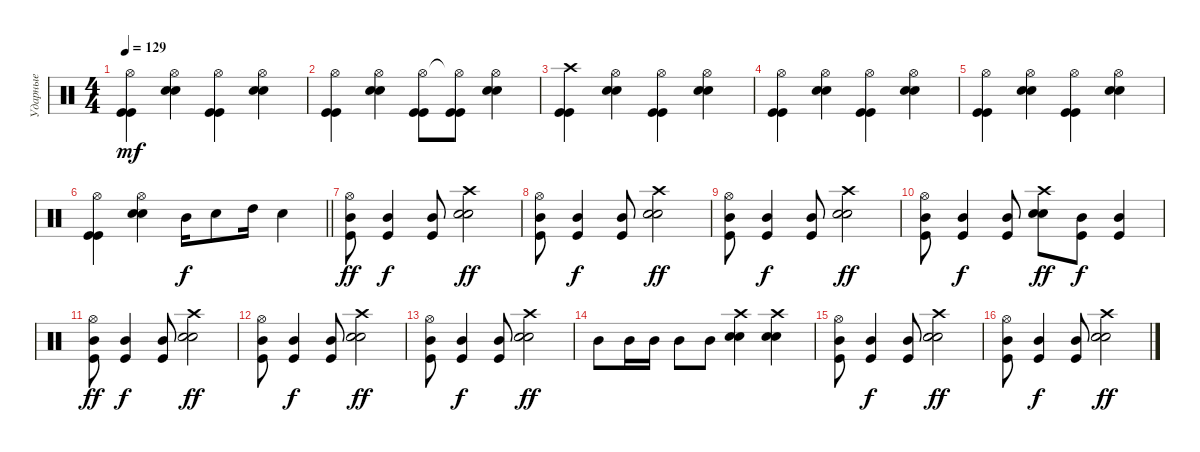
\track ("Ударные" "Ударные") {instrument percussion}
\staff {score}
\articulation defaults
\ts (4 4)
\tempo 129
\clef neutral
\ks c
("Hi-Hat (open)" "Kick (hit)" "Kick (hit)").4{dy mf} ("Hi-Hat (open)" "Snare (hit) 2" "Snare (hit) 2").4 ("Hi-Hat (open)" "Kick (hit)" "Kick (hit)").4 ("Hi-Hat (open)" "Snare (hit) 2" "Snare (hit) 2").4 |
("Hi-Hat (open)" "Kick (hit)" "Kick (hit)").4 ("Hi-Hat (open)" "Snare (hit) 2" "Snare (hit) 2").4 ("Hi-Hat (open)" "Kick (hit)" "Kick (hit)").8 ("Hi-Hat (open)"{t} "Kick (hit)" "Kick (hit)").8 ("Hi-Hat (open)" "Snare (hit) 2" "Snare (hit) 2").4 |
("Crash high (hit)" "Kick (hit)" "Kick (hit)").4 ("Hi-Hat (open)" "Snare (hit) 2" "Snare (hit) 2").4 ("Hi-Hat (open)" "Kick (hit)" "Kick (hit)").4 ("Hi-Hat (open)" "Snare (hit) 2" "Snare (hit) 2").4 |
("Hi-Hat (open)" "Kick (hit)" "Kick (hit)").4 ("Hi-Hat (open)" "Snare (hit) 2" "Snare (hit) 2").4 ("Hi-Hat (open)" "Kick (hit)" "Kick (hit)").4 ("Hi-Hat (open)" "Snare (hit) 2" "Snare (hit) 2").4 |
("Hi-Hat (open)" "Kick (hit)" "Kick (hit)").4 ("Hi-Hat (open)" "Snare (hit) 2" "Snare (hit) 2").4 ("Hi-Hat (open)" "Kick (hit)" "Kick (hit)").4 ("Hi-Hat (open)" "Snare (hit) 2" "Snare (hit) 2").4 |
\barLineRight lightlight
("Hi-Hat (open)" "Kick (hit)" "Kick (hit)").4 ("Hi-Hat (open)" "Snare (hit) 2" "Snare (hit) 2").4 "Mid Tom (hit)".16{dy f} "Snare (hit) 2".8 "High Tom (hit)".16 "Snare (hit) 2".4 |
("Kick (hit)" "Mid Tom (hit)" "Hi-Hat (open)").8{dy ff} ("Kick (hit)" "Mid Tom (hit)").4{dy f} ("Kick (hit)" "Mid Tom (hit)").8 ("Snare (hit) 2" "Snare (hit) 2" "Crash high (hit)").2{dy ff} |
("Kick (hit)" "Mid Tom (hit)" "Hi-Hat (open)").8 ("Kick (hit)" "Mid Tom (hit)").4{dy f} ("Kick (hit)" "Mid Tom (hit)").8 ("Snare (hit) 2" "Snare (hit) 2" "Crash high (hit)").2{dy ff} |
("Kick (hit)" "Mid Tom (hit)" "Hi-Hat (open)").8 ("Kick (hit)" "Mid Tom (hit)").4{dy f} ("Kick (hit)" "Mid Tom (hit)").8 ("Snare (hit) 2" "Snare (hit) 2" "Crash high (hit)").2{dy ff} |
("Kick (hit)" "Mid Tom (hit)" "Hi-Hat (open)").8 ("Kick (hit)" "Mid Tom (hit)").4{dy f} ("Kick (hit)" "Mid Tom (hit)").8 ("Snare (hit) 2" "Snare (hit) 2" "Crash high (hit)").8{dy ff} ("Kick (hit)" "Mid Tom (hit)").8{dy f} ("Kick (hit)" "Mid Tom (hit)").4 |
("Kick (hit)" "Mid Tom (hit)" "Hi-Hat (open)").8{dy ff} ("Kick (hit)" "Mid Tom (hit)").4{dy f} ("Kick (hit)" "Mid Tom (hit)").8 ("Snare (hit) 2" "Snare (hit) 2" "Crash high (hit)").2{dy ff} |
("Kick (hit)" "Mid Tom (hit)" "Hi-Hat (open)").8 ("Kick (hit)" "Mid Tom (hit)").4{dy f} ("Kick (hit)" "Mid Tom (hit)").8 ("Snare (hit) 2" "Snare (hit) 2" "Crash high (hit)").2{dy ff} |
("Kick (hit)" "Mid Tom (hit)" "Hi-Hat (open)").8 ("Kick (hit)" "Mid Tom (hit)").4{dy f} ("Kick (hit)" "Mid Tom (hit)").8 ("Snare (hit) 2" "Snare (hit) 2" "Crash high (hit)").2{dy ff} |
"Mid Tom (hit)".8 "Mid Tom (hit)".16 "Mid Tom (hit)".16 "Mid Tom (hit)".8 "Mid Tom (hit)".8 ("Snare (hit) 2" "Snare (hit) 2" "Crash high (hit)").4 ("Snare (hit) 2" "Snare (hit) 2" "Crash high (hit)").4 |
("Kick (hit)" "Mid Tom (hit)" "Hi-Hat (open)").8 ("Kick (hit)" "Mid Tom (hit)").4{dy f} ("Kick (hit)" "Mid Tom (hit)").8 ("Snare (hit) 2" "Snare (hit) 2" "Crash high (hit)").2{dy ff} |
("Kick (hit)" "Mid Tom (hit)" "Hi-Hat (open)").8 ("Kick (hit)" "Mid Tom (hit)").4{dy f} ("Kick (hit)" "Mid Tom (hit)").8 ("Snare (hit) 2" "Snare (hit) 2" "Crash high (hit)").2{dy ff}
